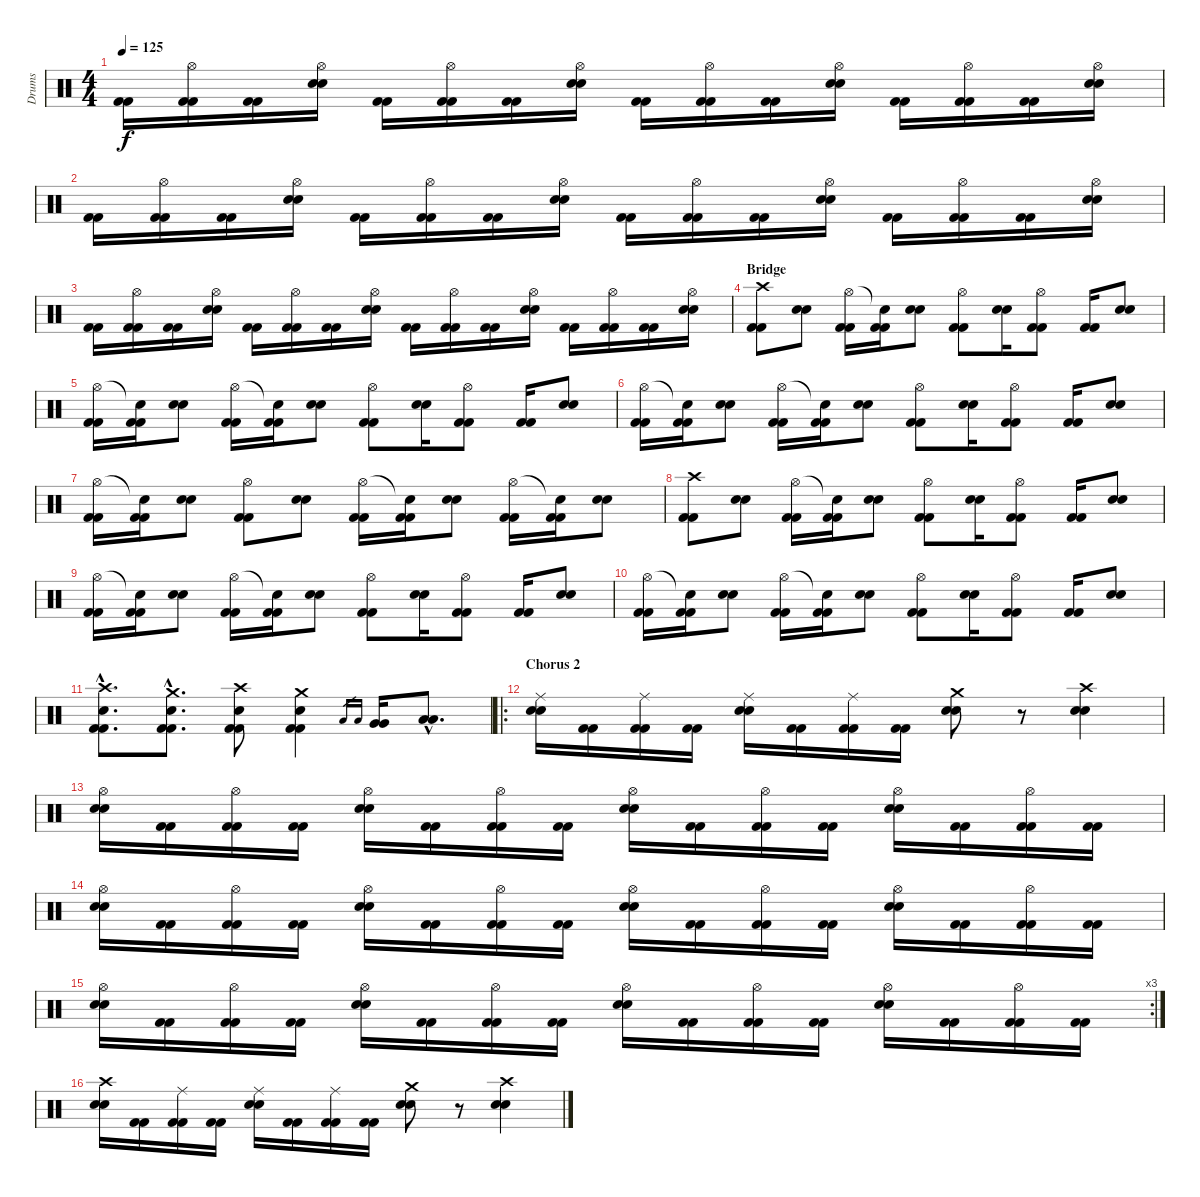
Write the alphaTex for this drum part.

\track ("Drums" "Drums") {instrument percussion}
\staff {score}
\articulation defaults
\ts (4 4)
\tempo 125
\clef neutral
\ks c
("Kick (hit) 2" "Kick (hit) 2").16{dy f} ("Hi-Hat (open)" "Kick (hit) 2" "Kick (hit) 2").16 ("Kick (hit) 2" "Kick (hit) 2").16 ("Hi-Hat (open)" "Snare (hit) 2" "Snare (hit) 2").16 ("Kick (hit) 2" "Kick (hit) 2").16 ("Hi-Hat (open)" "Kick (hit) 2" "Kick (hit) 2").16 ("Kick (hit) 2" "Kick (hit) 2").16 ("Hi-Hat (open)" "Snare (hit) 2" "Snare (hit) 2").16 ("Kick (hit) 2" "Kick (hit) 2").16 ("Hi-Hat (open)" "Kick (hit) 2" "Kick (hit) 2").16 ("Kick (hit) 2" "Kick (hit) 2").16 ("Hi-Hat (open)" "Snare (hit) 2" "Snare (hit) 2").16 ("Kick (hit) 2" "Kick (hit) 2").16 ("Hi-Hat (open)" "Kick (hit) 2" "Kick (hit) 2").16 ("Kick (hit) 2" "Kick (hit) 2").16 ("Hi-Hat (open)" "Snare (hit) 2" "Snare (hit) 2").16 |
("Kick (hit) 2" "Kick (hit) 2").16 ("Hi-Hat (open)" "Kick (hit) 2" "Kick (hit) 2").16 ("Kick (hit) 2" "Kick (hit) 2").16 ("Hi-Hat (open)" "Snare (hit) 2" "Snare (hit) 2").16 ("Kick (hit) 2" "Kick (hit) 2").16 ("Hi-Hat (open)" "Kick (hit) 2" "Kick (hit) 2").16 ("Kick (hit) 2" "Kick (hit) 2").16 ("Hi-Hat (open)" "Snare (hit) 2" "Snare (hit) 2").16 ("Kick (hit) 2" "Kick (hit) 2").16 ("Hi-Hat (open)" "Kick (hit) 2" "Kick (hit) 2").16 ("Kick (hit) 2" "Kick (hit) 2").16 ("Hi-Hat (open)" "Snare (hit) 2" "Snare (hit) 2").16 ("Kick (hit) 2" "Kick (hit) 2").16 ("Hi-Hat (open)" "Kick (hit) 2" "Kick (hit) 2").16 ("Kick (hit) 2" "Kick (hit) 2").16 ("Hi-Hat (open)" "Snare (hit) 2" "Snare (hit) 2").16 |
("Kick (hit) 2" "Kick (hit) 2").16 ("Hi-Hat (open)" "Kick (hit) 2" "Kick (hit) 2").16 ("Kick (hit) 2" "Kick (hit) 2").16 ("Hi-Hat (open)" "Snare (hit) 2" "Snare (hit) 2").16 ("Kick (hit) 2" "Kick (hit) 2").16 ("Hi-Hat (open)" "Kick (hit) 2" "Kick (hit) 2").16 ("Kick (hit) 2" "Kick (hit) 2").16 ("Hi-Hat (open)" "Snare (hit) 2" "Snare (hit) 2").16 ("Kick (hit) 2" "Kick (hit) 2").16 ("Hi-Hat (open)" "Kick (hit) 2" "Kick (hit) 2").16 ("Kick (hit) 2" "Kick (hit) 2").16 ("Hi-Hat (open)" "Snare (hit) 2" "Snare (hit) 2").16 ("Kick (hit) 2" "Kick (hit) 2").16 ("Hi-Hat (open)" "Kick (hit) 2" "Kick (hit) 2").16 ("Kick (hit) 2" "Kick (hit) 2").16 ("Hi-Hat (open)" "Snare (hit) 2" "Snare (hit) 2").16 |
\section ("" "Bridge")
("Crash high (hit)" "Kick (hit) 2" "Kick (hit) 2").8 ("Snare (hit) 2" "Snare (hit) 2").8 ("Hi-Hat (open)" "Kick (hit) 2" "Kick (hit) 2").16 ("Snare (hit)"{t} "Kick (hit) 2" "Kick (hit) 2").16 ("Snare (hit) 2" "Snare (hit) 2").8 ("Hi-Hat (open)" "Kick (hit) 2" "Kick (hit) 2").8 ("Snare (hit) 2" "Snare (hit) 2").16 ("Hi-Hat (open)" "Kick (hit) 2" "Kick (hit) 2").8 ("Kick (hit) 2" "Kick (hit) 2").16 ("Snare (hit) 2" "Snare (hit) 2").8 |
("Hi-Hat (open)" "Kick (hit) 2" "Kick (hit) 2").16 ("Snare (hit)"{t} "Kick (hit) 2" "Kick (hit) 2").16 ("Snare (hit) 2" "Snare (hit) 2").8 ("Hi-Hat (open)" "Kick (hit) 2" "Kick (hit) 2").16 ("Snare (hit)"{t} "Kick (hit) 2" "Kick (hit) 2").16 ("Snare (hit) 2" "Snare (hit) 2").8 ("Hi-Hat (open)" "Kick (hit) 2" "Kick (hit) 2").8 ("Snare (hit) 2" "Snare (hit) 2").16 ("Hi-Hat (open)" "Kick (hit) 2" "Kick (hit) 2").8 ("Kick (hit) 2" "Kick (hit) 2").16 ("Snare (hit) 2" "Snare (hit) 2").8 |
("Hi-Hat (open)" "Kick (hit) 2" "Kick (hit) 2").16 ("Snare (hit)"{t} "Kick (hit) 2" "Kick (hit) 2").16 ("Snare (hit) 2" "Snare (hit) 2").8 ("Hi-Hat (open)" "Kick (hit) 2" "Kick (hit) 2").16 ("Snare (hit)"{t} "Kick (hit) 2" "Kick (hit) 2").16 ("Snare (hit) 2" "Snare (hit) 2").8 ("Hi-Hat (open)" "Kick (hit) 2" "Kick (hit) 2").8 ("Snare (hit) 2" "Snare (hit) 2").16 ("Hi-Hat (open)" "Kick (hit) 2" "Kick (hit) 2").8 ("Kick (hit) 2" "Kick (hit) 2").16 ("Snare (hit) 2" "Snare (hit) 2").8 |
("Hi-Hat (open)" "Kick (hit) 2" "Kick (hit) 2").16 ("Snare (hit)"{t} "Kick (hit) 2" "Kick (hit) 2").16 ("Snare (hit) 2" "Snare (hit) 2").8 ("Hi-Hat (open)" "Kick (hit) 2" "Kick (hit) 2").8 ("Snare (hit) 2" "Snare (hit) 2").8 ("Hi-Hat (open)" "Kick (hit) 2" "Kick (hit) 2").16 ("Snare (hit)"{t} "Kick (hit) 2" "Kick (hit) 2").16 ("Snare (hit) 2" "Snare (hit) 2").8 ("Hi-Hat (open)" "Kick (hit) 2" "Kick (hit) 2").16 ("Snare (hit)"{t} "Kick (hit) 2" "Kick (hit) 2").16 ("Snare (hit) 2" "Snare (hit) 2").8 |
("Crash high (hit)" "Kick (hit) 2" "Kick (hit) 2").8 ("Snare (hit) 2" "Snare (hit) 2").8 ("Hi-Hat (open)" "Kick (hit) 2" "Kick (hit) 2").16 ("Snare (hit)"{t} "Kick (hit) 2" "Kick (hit) 2").16 ("Snare (hit) 2" "Snare (hit) 2").8 ("Hi-Hat (open)" "Kick (hit) 2" "Kick (hit) 2").8 ("Snare (hit) 2" "Snare (hit) 2").16 ("Hi-Hat (open)" "Kick (hit) 2" "Kick (hit) 2").8 ("Kick (hit) 2" "Kick (hit) 2").16 ("Snare (hit) 2" "Snare (hit) 2").8 |
("Hi-Hat (open)" "Kick (hit) 2" "Kick (hit) 2").16 ("Snare (hit)"{t} "Kick (hit) 2" "Kick (hit) 2").16 ("Snare (hit) 2" "Snare (hit) 2").8 ("Hi-Hat (open)" "Kick (hit) 2" "Kick (hit) 2").16 ("Snare (hit)"{t} "Kick (hit) 2" "Kick (hit) 2").16 ("Snare (hit) 2" "Snare (hit) 2").8 ("Hi-Hat (open)" "Kick (hit) 2" "Kick (hit) 2").8 ("Snare (hit) 2" "Snare (hit) 2").16 ("Hi-Hat (open)" "Kick (hit) 2" "Kick (hit) 2").8 ("Kick (hit) 2" "Kick (hit) 2").16 ("Snare (hit) 2" "Snare (hit) 2").8 |
("Hi-Hat (open)" "Kick (hit) 2" "Kick (hit) 2").16 ("Snare (hit)"{t} "Kick (hit) 2" "Kick (hit) 2").16 ("Snare (hit) 2" "Snare (hit) 2").8 ("Hi-Hat (open)" "Kick (hit) 2" "Kick (hit) 2").16 ("Snare (hit)"{t} "Kick (hit) 2" "Kick (hit) 2").16 ("Snare (hit) 2" "Snare (hit) 2").8 ("Hi-Hat (open)" "Kick (hit) 2" "Kick (hit) 2").8 ("Snare (hit) 2" "Snare (hit) 2").16 ("Hi-Hat (open)" "Kick (hit) 2" "Kick (hit) 2").8 ("Kick (hit) 2" "Kick (hit) 2").16 ("Snare (hit) 2" "Snare (hit) 2").8 |
("Crash high (hit)"{hac} "Snare (hit) 2"{hac} "Kick (hit) 2"{hac} "Kick (hit) 2"{hac}).8{d} ("Crash medium (hit)"{hac} "Snare (hit) 2"{hac} "Kick (hit) 2"{hac} "Kick (hit) 2"{hac}).8{d} ("Crash high (hit)" "Snare (hit) 2" "Kick (hit) 2" "Kick (hit) 2").8 ("Crash medium (hit)" "Snare (hit) 2" "Kick (hit) 2" "Kick (hit) 2").4 "Low Floor Tom (hit)".16{gr} "Low Floor Tom (hit)".16{gr} ("Very Low Tom (hit)" "Very Low Tom (hit)").16 ("Low Tom (hit)"{hac} "Low Tom (hit)"{hac}).8{d} |
\ro
\section ("" "Chorus 2")
("Ride (middle)" "Snare (hit) 2" "Snare (hit) 2").16 ("Kick (hit) 2" "Kick (hit) 2").16 ("Ride (middle)" "Kick (hit) 2" "Kick (hit) 2").16 ("Kick (hit) 2" "Kick (hit) 2").16 ("Ride (middle)" "Snare (hit) 2" "Snare (hit) 2").16 ("Kick (hit) 2" "Kick (hit) 2").16 ("Ride (middle)" "Kick (hit) 2" "Kick (hit) 2").16 ("Kick (hit) 2" "Kick (hit) 2").16 ("Crash medium (hit)" "Snare (hit) 2" "Snare (hit) 2").8 r.8 ("Crash high (hit)" "Snare (hit) 2" "Snare (hit) 2").4 |
("Hi-Hat (open)" "Snare (hit) 2" "Snare (hit) 2").16 ("Kick (hit) 2" "Kick (hit) 2").16 ("Hi-Hat (open)" "Kick (hit) 2" "Kick (hit) 2").16 ("Kick (hit) 2" "Kick (hit) 2").16 ("Hi-Hat (open)" "Snare (hit) 2" "Snare (hit) 2").16 ("Kick (hit) 2" "Kick (hit) 2").16 ("Hi-Hat (open)" "Kick (hit) 2" "Kick (hit) 2").16 ("Kick (hit) 2" "Kick (hit) 2").16 ("Hi-Hat (open)" "Snare (hit) 2" "Snare (hit) 2").16 ("Kick (hit) 2" "Kick (hit) 2").16 ("Hi-Hat (open)" "Kick (hit) 2" "Kick (hit) 2").16 ("Kick (hit) 2" "Kick (hit) 2").16 ("Hi-Hat (open)" "Snare (hit) 2" "Snare (hit) 2").16 ("Kick (hit) 2" "Kick (hit) 2").16 ("Hi-Hat (open)" "Kick (hit) 2" "Kick (hit) 2").16 ("Kick (hit) 2" "Kick (hit) 2").16 |
("Hi-Hat (open)" "Snare (hit) 2" "Snare (hit) 2").16 ("Kick (hit) 2" "Kick (hit) 2").16 ("Hi-Hat (open)" "Kick (hit) 2" "Kick (hit) 2").16 ("Kick (hit) 2" "Kick (hit) 2").16 ("Hi-Hat (open)" "Snare (hit) 2" "Snare (hit) 2").16 ("Kick (hit) 2" "Kick (hit) 2").16 ("Hi-Hat (open)" "Kick (hit) 2" "Kick (hit) 2").16 ("Kick (hit) 2" "Kick (hit) 2").16 ("Hi-Hat (open)" "Snare (hit) 2" "Snare (hit) 2").16 ("Kick (hit) 2" "Kick (hit) 2").16 ("Hi-Hat (open)" "Kick (hit) 2" "Kick (hit) 2").16 ("Kick (hit) 2" "Kick (hit) 2").16 ("Hi-Hat (open)" "Snare (hit) 2" "Snare (hit) 2").16 ("Kick (hit) 2" "Kick (hit) 2").16 ("Hi-Hat (open)" "Kick (hit) 2" "Kick (hit) 2").16 ("Kick (hit) 2" "Kick (hit) 2").16 |
\rc 3
("Hi-Hat (open)" "Snare (hit) 2" "Snare (hit) 2").16 ("Kick (hit) 2" "Kick (hit) 2").16 ("Hi-Hat (open)" "Kick (hit) 2" "Kick (hit) 2").16 ("Kick (hit) 2" "Kick (hit) 2").16 ("Hi-Hat (open)" "Snare (hit) 2" "Snare (hit) 2").16 ("Kick (hit) 2" "Kick (hit) 2").16 ("Hi-Hat (open)" "Kick (hit) 2" "Kick (hit) 2").16 ("Kick (hit) 2" "Kick (hit) 2").16 ("Hi-Hat (open)" "Snare (hit) 2" "Snare (hit) 2").16 ("Kick (hit) 2" "Kick (hit) 2").16 ("Hi-Hat (open)" "Kick (hit) 2" "Kick (hit) 2").16 ("Kick (hit) 2" "Kick (hit) 2").16 ("Hi-Hat (open)" "Snare (hit) 2" "Snare (hit) 2").16 ("Kick (hit) 2" "Kick (hit) 2").16 ("Hi-Hat (open)" "Kick (hit) 2" "Kick (hit) 2").16 ("Kick (hit) 2" "Kick (hit) 2").16 |
("Crash high (hit)" "Snare (hit) 2" "Snare (hit) 2").16 ("Kick (hit) 2" "Kick (hit) 2").16 ("Ride (middle)" "Kick (hit) 2" "Kick (hit) 2").16 ("Kick (hit) 2" "Kick (hit) 2").16 ("Ride (middle)" "Snare (hit) 2" "Snare (hit) 2").16 ("Kick (hit) 2" "Kick (hit) 2").16 ("Ride (middle)" "Kick (hit) 2" "Kick (hit) 2").16 ("Kick (hit) 2" "Kick (hit) 2").16 ("Crash medium (hit)" "Snare (hit) 2" "Snare (hit) 2").8 r.8 ("Crash high (hit)" "Snare (hit) 2" "Snare (hit) 2").4
